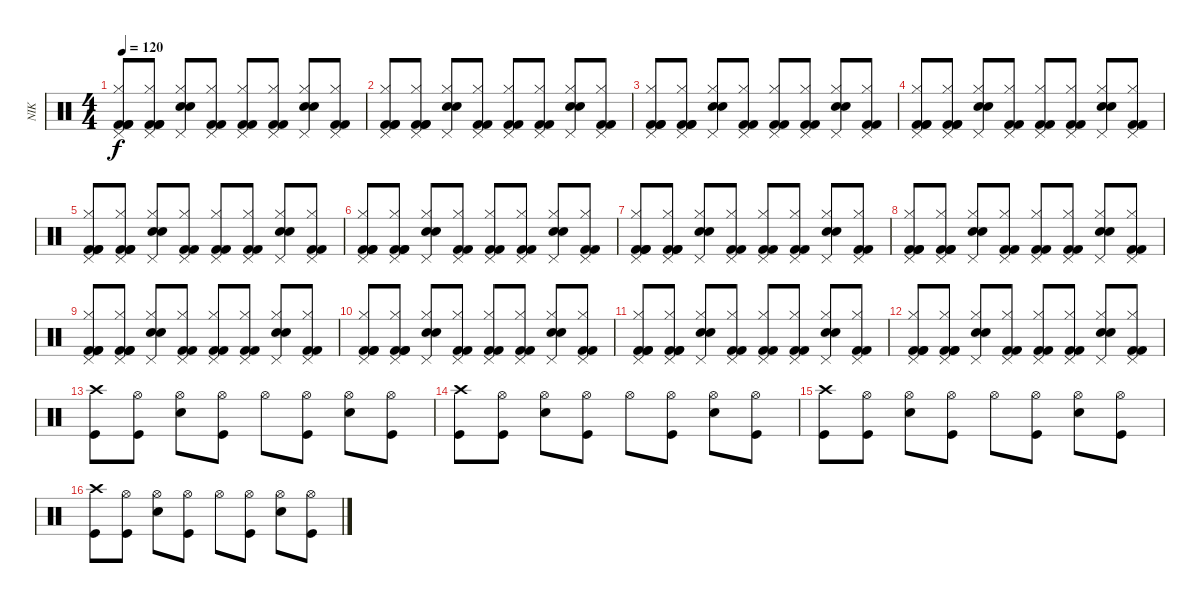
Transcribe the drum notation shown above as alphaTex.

\track ("NIK" "NIK") {instrument percussion}
\staff {score}
\articulation defaults
\ts (4 4)
\tempo 120
\clef neutral
\ks c
("Pedal Hi-Hat (hit)" "Hi-Hat (closed)" "Kick (hit) 2" "Kick (hit) 2" "Kick (hit) 2").8{dy f} ("Pedal Hi-Hat (hit)" "Hi-Hat (closed)" "Kick (hit) 2" "Kick (hit) 2" "Kick (hit) 2").8 ("Pedal Hi-Hat (hit)" "Hi-Hat (closed)" "Snare (hit) 2" "Snare (hit) 2").8 ("Pedal Hi-Hat (hit)" "Hi-Hat (closed)" "Kick (hit) 2" "Kick (hit) 2").8 ("Pedal Hi-Hat (hit)" "Hi-Hat (closed)" "Kick (hit) 2" "Kick (hit) 2").8 ("Pedal Hi-Hat (hit)" "Hi-Hat (closed)" "Kick (hit) 2" "Kick (hit) 2").8 ("Pedal Hi-Hat (hit)" "Hi-Hat (closed)" "Snare (hit) 2" "Snare (hit) 2").8 ("Pedal Hi-Hat (hit)" "Hi-Hat (closed)" "Kick (hit) 2" "Kick (hit) 2").8 |
("Pedal Hi-Hat (hit)" "Hi-Hat (closed)" "Kick (hit) 2" "Kick (hit) 2" "Kick (hit) 2").8 ("Pedal Hi-Hat (hit)" "Hi-Hat (closed)" "Kick (hit) 2" "Kick (hit) 2" "Kick (hit) 2").8 ("Pedal Hi-Hat (hit)" "Hi-Hat (closed)" "Snare (hit) 2" "Snare (hit) 2").8 ("Pedal Hi-Hat (hit)" "Hi-Hat (closed)" "Kick (hit) 2" "Kick (hit) 2").8 ("Pedal Hi-Hat (hit)" "Hi-Hat (closed)" "Kick (hit) 2" "Kick (hit) 2").8 ("Pedal Hi-Hat (hit)" "Hi-Hat (closed)" "Kick (hit) 2" "Kick (hit) 2").8 ("Pedal Hi-Hat (hit)" "Hi-Hat (closed)" "Snare (hit) 2" "Snare (hit) 2").8 ("Pedal Hi-Hat (hit)" "Hi-Hat (closed)" "Kick (hit) 2" "Kick (hit) 2").8 |
("Pedal Hi-Hat (hit)" "Hi-Hat (closed)" "Kick (hit) 2" "Kick (hit) 2" "Kick (hit) 2").8 ("Pedal Hi-Hat (hit)" "Hi-Hat (closed)" "Kick (hit) 2" "Kick (hit) 2" "Kick (hit) 2").8 ("Pedal Hi-Hat (hit)" "Hi-Hat (closed)" "Snare (hit) 2" "Snare (hit) 2").8 ("Pedal Hi-Hat (hit)" "Hi-Hat (closed)" "Kick (hit) 2" "Kick (hit) 2").8 ("Pedal Hi-Hat (hit)" "Hi-Hat (closed)" "Kick (hit) 2" "Kick (hit) 2").8 ("Pedal Hi-Hat (hit)" "Hi-Hat (closed)" "Kick (hit) 2" "Kick (hit) 2").8 ("Pedal Hi-Hat (hit)" "Hi-Hat (closed)" "Snare (hit) 2" "Snare (hit) 2").8 ("Pedal Hi-Hat (hit)" "Hi-Hat (closed)" "Kick (hit) 2" "Kick (hit) 2").8 |
("Pedal Hi-Hat (hit)" "Hi-Hat (closed)" "Kick (hit) 2" "Kick (hit) 2" "Kick (hit) 2").8 ("Pedal Hi-Hat (hit)" "Hi-Hat (closed)" "Kick (hit) 2" "Kick (hit) 2" "Kick (hit) 2").8 ("Pedal Hi-Hat (hit)" "Hi-Hat (closed)" "Snare (hit) 2" "Snare (hit) 2").8 ("Pedal Hi-Hat (hit)" "Hi-Hat (closed)" "Kick (hit) 2" "Kick (hit) 2").8 ("Pedal Hi-Hat (hit)" "Hi-Hat (closed)" "Kick (hit) 2" "Kick (hit) 2").8 ("Pedal Hi-Hat (hit)" "Hi-Hat (closed)" "Kick (hit) 2" "Kick (hit) 2").8 ("Pedal Hi-Hat (hit)" "Hi-Hat (closed)" "Snare (hit) 2" "Snare (hit) 2").8 ("Pedal Hi-Hat (hit)" "Hi-Hat (closed)" "Kick (hit) 2" "Kick (hit) 2").8 |
("Pedal Hi-Hat (hit)" "Hi-Hat (closed)" "Kick (hit) 2" "Kick (hit) 2" "Kick (hit) 2").8 ("Pedal Hi-Hat (hit)" "Hi-Hat (closed)" "Kick (hit) 2" "Kick (hit) 2" "Kick (hit) 2").8 ("Pedal Hi-Hat (hit)" "Hi-Hat (closed)" "Snare (hit) 2" "Snare (hit) 2").8 ("Pedal Hi-Hat (hit)" "Hi-Hat (closed)" "Kick (hit) 2" "Kick (hit) 2").8 ("Pedal Hi-Hat (hit)" "Hi-Hat (closed)" "Kick (hit) 2" "Kick (hit) 2").8 ("Pedal Hi-Hat (hit)" "Hi-Hat (closed)" "Kick (hit) 2" "Kick (hit) 2").8 ("Pedal Hi-Hat (hit)" "Hi-Hat (closed)" "Snare (hit) 2" "Snare (hit) 2").8 ("Pedal Hi-Hat (hit)" "Hi-Hat (closed)" "Kick (hit) 2" "Kick (hit) 2").8 |
("Pedal Hi-Hat (hit)" "Hi-Hat (closed)" "Kick (hit) 2" "Kick (hit) 2" "Kick (hit) 2").8 ("Pedal Hi-Hat (hit)" "Hi-Hat (closed)" "Kick (hit) 2" "Kick (hit) 2" "Kick (hit) 2").8 ("Pedal Hi-Hat (hit)" "Hi-Hat (closed)" "Snare (hit) 2" "Snare (hit) 2").8 ("Pedal Hi-Hat (hit)" "Hi-Hat (closed)" "Kick (hit) 2" "Kick (hit) 2").8 ("Pedal Hi-Hat (hit)" "Hi-Hat (closed)" "Kick (hit) 2" "Kick (hit) 2").8 ("Pedal Hi-Hat (hit)" "Hi-Hat (closed)" "Kick (hit) 2" "Kick (hit) 2").8 ("Pedal Hi-Hat (hit)" "Hi-Hat (closed)" "Snare (hit) 2" "Snare (hit) 2").8 ("Pedal Hi-Hat (hit)" "Hi-Hat (closed)" "Kick (hit) 2" "Kick (hit) 2").8 |
("Pedal Hi-Hat (hit)" "Hi-Hat (closed)" "Kick (hit) 2" "Kick (hit) 2" "Kick (hit) 2").8 ("Pedal Hi-Hat (hit)" "Hi-Hat (closed)" "Kick (hit) 2" "Kick (hit) 2" "Kick (hit) 2").8 ("Pedal Hi-Hat (hit)" "Hi-Hat (closed)" "Snare (hit) 2" "Snare (hit) 2").8 ("Pedal Hi-Hat (hit)" "Hi-Hat (closed)" "Kick (hit) 2" "Kick (hit) 2").8 ("Pedal Hi-Hat (hit)" "Hi-Hat (closed)" "Kick (hit) 2" "Kick (hit) 2").8 ("Pedal Hi-Hat (hit)" "Hi-Hat (closed)" "Kick (hit) 2" "Kick (hit) 2").8 ("Pedal Hi-Hat (hit)" "Hi-Hat (closed)" "Snare (hit) 2" "Snare (hit) 2").8 ("Pedal Hi-Hat (hit)" "Hi-Hat (closed)" "Kick (hit) 2" "Kick (hit) 2").8 |
("Pedal Hi-Hat (hit)" "Hi-Hat (closed)" "Kick (hit) 2" "Kick (hit) 2" "Kick (hit) 2").8 ("Pedal Hi-Hat (hit)" "Hi-Hat (closed)" "Kick (hit) 2" "Kick (hit) 2" "Kick (hit) 2").8 ("Pedal Hi-Hat (hit)" "Hi-Hat (closed)" "Snare (hit) 2" "Snare (hit) 2").8 ("Pedal Hi-Hat (hit)" "Hi-Hat (closed)" "Kick (hit) 2" "Kick (hit) 2").8 ("Pedal Hi-Hat (hit)" "Hi-Hat (closed)" "Kick (hit) 2" "Kick (hit) 2").8 ("Pedal Hi-Hat (hit)" "Hi-Hat (closed)" "Kick (hit) 2" "Kick (hit) 2").8 ("Pedal Hi-Hat (hit)" "Hi-Hat (closed)" "Snare (hit) 2" "Snare (hit) 2").8 ("Pedal Hi-Hat (hit)" "Hi-Hat (closed)" "Kick (hit) 2" "Kick (hit) 2").8 |
("Pedal Hi-Hat (hit)" "Hi-Hat (closed)" "Kick (hit) 2" "Kick (hit) 2" "Kick (hit) 2").8 ("Pedal Hi-Hat (hit)" "Hi-Hat (closed)" "Kick (hit) 2" "Kick (hit) 2" "Kick (hit) 2").8 ("Pedal Hi-Hat (hit)" "Hi-Hat (closed)" "Snare (hit) 2" "Snare (hit) 2").8 ("Pedal Hi-Hat (hit)" "Hi-Hat (closed)" "Kick (hit) 2" "Kick (hit) 2").8 ("Pedal Hi-Hat (hit)" "Hi-Hat (closed)" "Kick (hit) 2" "Kick (hit) 2").8 ("Pedal Hi-Hat (hit)" "Hi-Hat (closed)" "Kick (hit) 2" "Kick (hit) 2").8 ("Pedal Hi-Hat (hit)" "Hi-Hat (closed)" "Snare (hit) 2" "Snare (hit) 2").8 ("Pedal Hi-Hat (hit)" "Hi-Hat (closed)" "Kick (hit) 2" "Kick (hit) 2").8 |
("Pedal Hi-Hat (hit)" "Hi-Hat (closed)" "Kick (hit) 2" "Kick (hit) 2" "Kick (hit) 2").8 ("Pedal Hi-Hat (hit)" "Hi-Hat (closed)" "Kick (hit) 2" "Kick (hit) 2" "Kick (hit) 2").8 ("Pedal Hi-Hat (hit)" "Hi-Hat (closed)" "Snare (hit) 2" "Snare (hit) 2").8 ("Pedal Hi-Hat (hit)" "Hi-Hat (closed)" "Kick (hit) 2" "Kick (hit) 2").8 ("Pedal Hi-Hat (hit)" "Hi-Hat (closed)" "Kick (hit) 2" "Kick (hit) 2").8 ("Pedal Hi-Hat (hit)" "Hi-Hat (closed)" "Kick (hit) 2" "Kick (hit) 2").8 ("Pedal Hi-Hat (hit)" "Hi-Hat (closed)" "Snare (hit) 2" "Snare (hit) 2").8 ("Pedal Hi-Hat (hit)" "Hi-Hat (closed)" "Kick (hit) 2" "Kick (hit) 2").8 |
("Pedal Hi-Hat (hit)" "Hi-Hat (closed)" "Kick (hit) 2" "Kick (hit) 2" "Kick (hit) 2").8 ("Pedal Hi-Hat (hit)" "Hi-Hat (closed)" "Kick (hit) 2" "Kick (hit) 2" "Kick (hit) 2").8 ("Pedal Hi-Hat (hit)" "Hi-Hat (closed)" "Snare (hit) 2" "Snare (hit) 2").8 ("Pedal Hi-Hat (hit)" "Hi-Hat (closed)" "Kick (hit) 2" "Kick (hit) 2").8 ("Pedal Hi-Hat (hit)" "Hi-Hat (closed)" "Kick (hit) 2" "Kick (hit) 2").8 ("Pedal Hi-Hat (hit)" "Hi-Hat (closed)" "Kick (hit) 2" "Kick (hit) 2").8 ("Pedal Hi-Hat (hit)" "Hi-Hat (closed)" "Snare (hit) 2" "Snare (hit) 2").8 ("Pedal Hi-Hat (hit)" "Hi-Hat (closed)" "Kick (hit) 2" "Kick (hit) 2").8 |
("Pedal Hi-Hat (hit)" "Hi-Hat (closed)" "Kick (hit) 2" "Kick (hit) 2" "Kick (hit) 2").8 ("Pedal Hi-Hat (hit)" "Hi-Hat (closed)" "Kick (hit) 2" "Kick (hit) 2" "Kick (hit) 2").8 ("Pedal Hi-Hat (hit)" "Hi-Hat (closed)" "Snare (hit) 2" "Snare (hit) 2").8 ("Pedal Hi-Hat (hit)" "Hi-Hat (closed)" "Kick (hit) 2" "Kick (hit) 2").8 ("Pedal Hi-Hat (hit)" "Hi-Hat (closed)" "Kick (hit) 2" "Kick (hit) 2").8 ("Pedal Hi-Hat (hit)" "Hi-Hat (closed)" "Kick (hit) 2" "Kick (hit) 2").8 ("Pedal Hi-Hat (hit)" "Hi-Hat (closed)" "Snare (hit) 2" "Snare (hit) 2").8 ("Pedal Hi-Hat (hit)" "Hi-Hat (closed)" "Kick (hit) 2" "Kick (hit) 2").8 |
("Crash high (hit)" "Kick (hit)").8 ("Hi-Hat (open)" "Kick (hit)").8 ("Hi-Hat (open)" "Electric Snare (hit)").8 ("Hi-Hat (open)" "Kick (hit)").8 "Hi-Hat (open)".8 ("Hi-Hat (open)" "Kick (hit)").8 ("Hi-Hat (open)" "Electric Snare (hit)").8 ("Hi-Hat (open)" "Kick (hit)").8 |
("Crash high (hit)" "Kick (hit)").8 ("Hi-Hat (open)" "Kick (hit)").8 ("Hi-Hat (open)" "Electric Snare (hit)").8 ("Hi-Hat (open)" "Kick (hit)").8 "Hi-Hat (open)".8 ("Hi-Hat (open)" "Kick (hit)").8 ("Hi-Hat (open)" "Electric Snare (hit)").8 ("Hi-Hat (open)" "Kick (hit)").8 |
("Crash high (hit)" "Kick (hit)").8 ("Hi-Hat (open)" "Kick (hit)").8 ("Hi-Hat (open)" "Electric Snare (hit)").8 ("Hi-Hat (open)" "Kick (hit)").8 "Hi-Hat (open)".8 ("Hi-Hat (open)" "Kick (hit)").8 ("Hi-Hat (open)" "Electric Snare (hit)").8 ("Hi-Hat (open)" "Kick (hit)").8 |
("Crash high (hit)" "Kick (hit)").8 ("Hi-Hat (open)" "Kick (hit)").8 ("Hi-Hat (open)" "Electric Snare (hit)").8 ("Hi-Hat (open)" "Kick (hit)").8 "Hi-Hat (open)".8 ("Hi-Hat (open)" "Kick (hit)").8 ("Hi-Hat (open)" "Electric Snare (hit)").8 ("Hi-Hat (open)" "Kick (hit)").8
